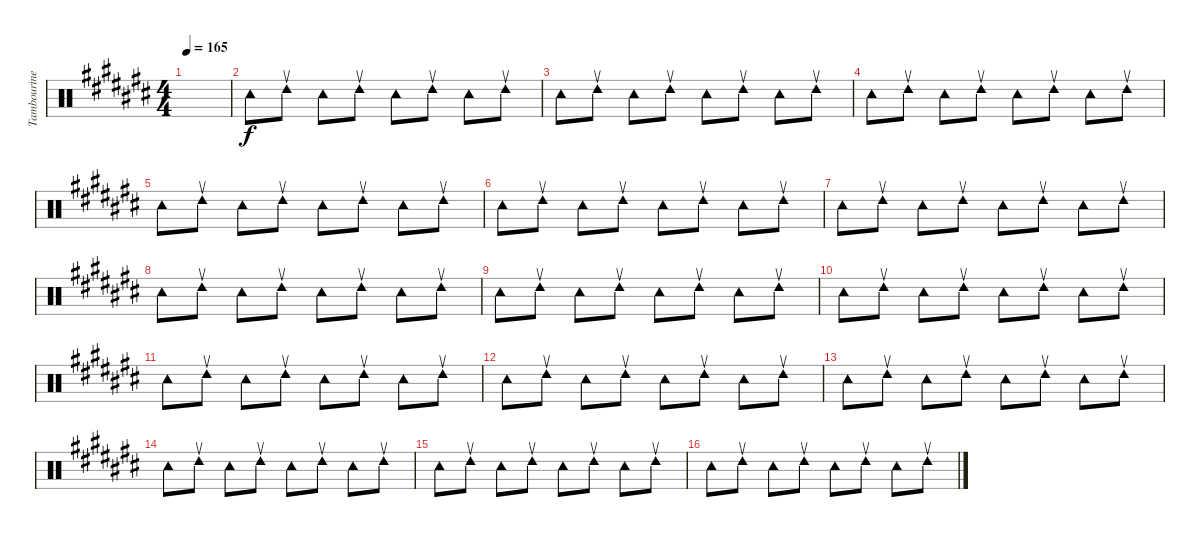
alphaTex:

\track ("Tambourine" "Tambourine") {instrument percussion}
\staff {score}
\articulation defaults
\ts (4 4)
\tempo 165
\clef neutral
\ks c#
|
"Tambourine (hit)".8 "Tambourine (return)".8 "Tambourine (hit)".8 "Tambourine (return)".8 "Tambourine (hit)".8 "Tambourine (return)".8 "Tambourine (hit)".8 "Tambourine (return)".8 |
"Tambourine (hit)".8 "Tambourine (return)".8 "Tambourine (hit)".8 "Tambourine (return)".8 "Tambourine (hit)".8 "Tambourine (return)".8 "Tambourine (hit)".8 "Tambourine (return)".8 |
"Tambourine (hit)".8 "Tambourine (return)".8 "Tambourine (hit)".8 "Tambourine (return)".8 "Tambourine (hit)".8 "Tambourine (return)".8 "Tambourine (hit)".8 "Tambourine (return)".8 |
"Tambourine (hit)".8 "Tambourine (return)".8 "Tambourine (hit)".8 "Tambourine (return)".8 "Tambourine (hit)".8 "Tambourine (return)".8 "Tambourine (hit)".8 "Tambourine (return)".8 |
"Tambourine (hit)".8 "Tambourine (return)".8 "Tambourine (hit)".8 "Tambourine (return)".8 "Tambourine (hit)".8 "Tambourine (return)".8 "Tambourine (hit)".8 "Tambourine (return)".8 |
"Tambourine (hit)".8 "Tambourine (return)".8 "Tambourine (hit)".8 "Tambourine (return)".8 "Tambourine (hit)".8 "Tambourine (return)".8 "Tambourine (hit)".8 "Tambourine (return)".8 |
"Tambourine (hit)".8 "Tambourine (return)".8 "Tambourine (hit)".8 "Tambourine (return)".8 "Tambourine (hit)".8 "Tambourine (return)".8 "Tambourine (hit)".8 "Tambourine (return)".8 |
"Tambourine (hit)".8 "Tambourine (return)".8 "Tambourine (hit)".8 "Tambourine (return)".8 "Tambourine (hit)".8 "Tambourine (return)".8 "Tambourine (hit)".8 "Tambourine (return)".8 |
"Tambourine (hit)".8 "Tambourine (return)".8 "Tambourine (hit)".8 "Tambourine (return)".8 "Tambourine (hit)".8 "Tambourine (return)".8 "Tambourine (hit)".8 "Tambourine (return)".8 |
"Tambourine (hit)".8 "Tambourine (return)".8 "Tambourine (hit)".8 "Tambourine (return)".8 "Tambourine (hit)".8 "Tambourine (return)".8 "Tambourine (hit)".8 "Tambourine (return)".8 |
"Tambourine (hit)".8 "Tambourine (return)".8 "Tambourine (hit)".8 "Tambourine (return)".8 "Tambourine (hit)".8 "Tambourine (return)".8 "Tambourine (hit)".8 "Tambourine (return)".8 |
"Tambourine (hit)".8 "Tambourine (return)".8 "Tambourine (hit)".8 "Tambourine (return)".8 "Tambourine (hit)".8 "Tambourine (return)".8 "Tambourine (hit)".8 "Tambourine (return)".8 |
"Tambourine (hit)".8 "Tambourine (return)".8 "Tambourine (hit)".8 "Tambourine (return)".8 "Tambourine (hit)".8 "Tambourine (return)".8 "Tambourine (hit)".8 "Tambourine (return)".8 |
"Tambourine (hit)".8 "Tambourine (return)".8 "Tambourine (hit)".8 "Tambourine (return)".8 "Tambourine (hit)".8 "Tambourine (return)".8 "Tambourine (hit)".8 "Tambourine (return)".8 |
"Tambourine (hit)".8 "Tambourine (return)".8 "Tambourine (hit)".8 "Tambourine (return)".8 "Tambourine (hit)".8 "Tambourine (return)".8 "Tambourine (hit)".8 "Tambourine (return)".8
